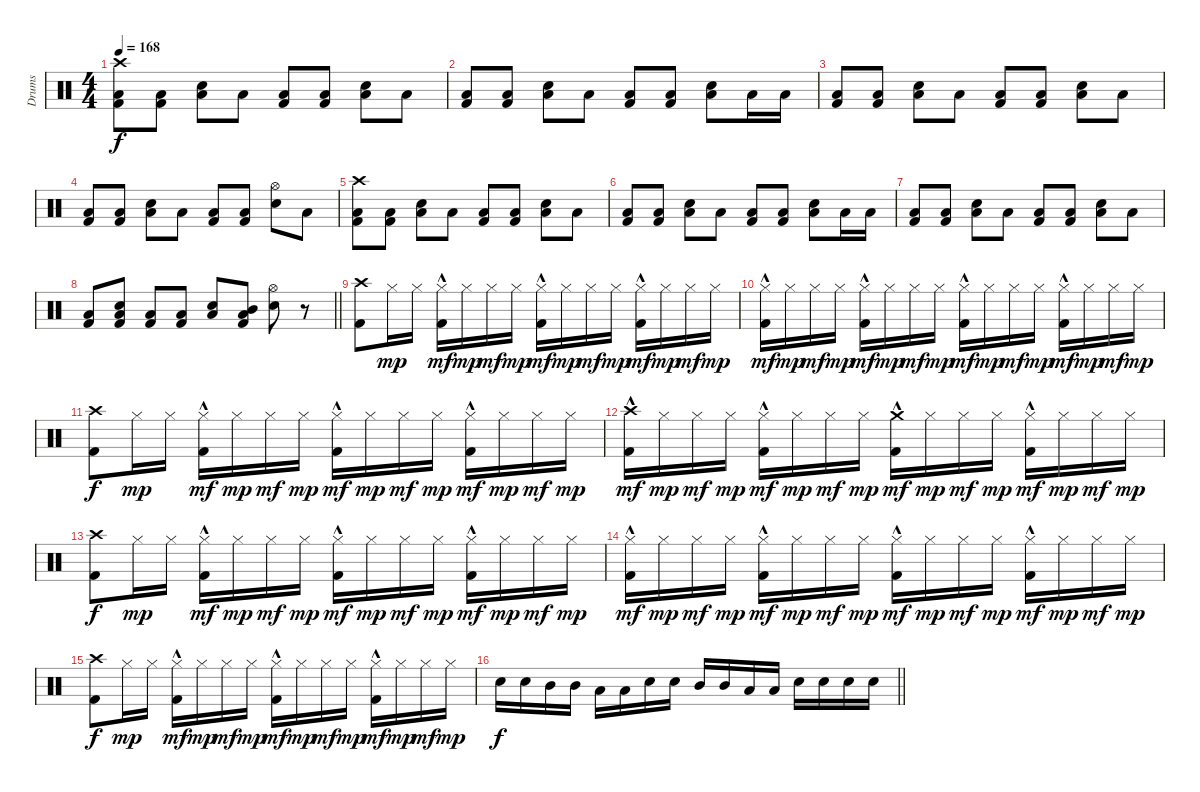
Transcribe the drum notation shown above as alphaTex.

\track ("Drums" "Drums") {instrument percussion}
\staff {score}
\articulation defaults
\ts (4 4)
\tempo 168
\clef neutral
\ks c
("Crash high (hit)" "Low Floor Tom (hit)" "Kick (hit) 2").8{dy f} ("Low Floor Tom (hit)" "Kick (hit) 2").8 ("Electric Snare (hit)" "Low Floor Tom (hit)").8 "Low Floor Tom (hit)".8 ("Low Floor Tom (hit)" "Kick (hit) 2").8 ("Low Floor Tom (hit)" "Kick (hit) 2").8 ("Electric Snare (hit)" "Low Floor Tom (hit)").8 "Low Floor Tom (hit)".8 |
("Low Floor Tom (hit)" "Kick (hit) 2").8 ("Low Floor Tom (hit)" "Kick (hit) 2").8 ("Electric Snare (hit)" "Low Floor Tom (hit)").8 "Low Floor Tom (hit)".8 ("Low Floor Tom (hit)" "Kick (hit) 2").8 ("Low Floor Tom (hit)" "Kick (hit) 2").8 ("Electric Snare (hit)" "Low Floor Tom (hit)").8 "Low Floor Tom (hit)".16 "Low Floor Tom (hit)".16 |
("Low Floor Tom (hit)" "Kick (hit) 2").8 ("Low Floor Tom (hit)" "Kick (hit) 2").8 ("Electric Snare (hit)" "Low Floor Tom (hit)").8 "Low Floor Tom (hit)".8 ("Low Floor Tom (hit)" "Kick (hit) 2").8 ("Low Floor Tom (hit)" "Kick (hit) 2").8 ("Electric Snare (hit)" "Low Floor Tom (hit)").8 "Low Floor Tom (hit)".8 |
("Low Floor Tom (hit)" "Kick (hit) 2").8 ("Low Floor Tom (hit)" "Kick (hit) 2").8 ("Electric Snare (hit)" "Low Floor Tom (hit)").8 "Low Floor Tom (hit)".8 ("Low Floor Tom (hit)" "Kick (hit) 2").8 ("Low Floor Tom (hit)" "Kick (hit) 2").8 ("Hi-Hat (open)" "Electric Snare (hit)").8 "Low Floor Tom (hit)".8 |
("Crash high (hit)" "Low Floor Tom (hit)" "Kick (hit) 2").8 ("Low Floor Tom (hit)" "Kick (hit) 2").8 ("Electric Snare (hit)" "Low Floor Tom (hit)").8 "Low Floor Tom (hit)".8 ("Low Floor Tom (hit)" "Kick (hit) 2").8 ("Low Floor Tom (hit)" "Kick (hit) 2").8 ("Electric Snare (hit)" "Low Floor Tom (hit)").8 "Low Floor Tom (hit)".8 |
("Low Floor Tom (hit)" "Kick (hit) 2").8 ("Low Floor Tom (hit)" "Kick (hit) 2").8 ("Electric Snare (hit)" "Low Floor Tom (hit)").8 "Low Floor Tom (hit)".8 ("Low Floor Tom (hit)" "Kick (hit) 2").8 ("Low Floor Tom (hit)" "Kick (hit) 2").8 ("Electric Snare (hit)" "Low Floor Tom (hit)").8 "Low Floor Tom (hit)".16 "Low Floor Tom (hit)".16 |
("Low Floor Tom (hit)" "Kick (hit) 2").8 ("Low Floor Tom (hit)" "Kick (hit) 2").8 ("Electric Snare (hit)" "Low Floor Tom (hit)").8 "Low Floor Tom (hit)".8 ("Low Floor Tom (hit)" "Kick (hit) 2").8 ("Low Floor Tom (hit)" "Kick (hit) 2").8 ("Electric Snare (hit)" "Low Floor Tom (hit)").8 "Low Floor Tom (hit)".8 |
\barLineRight lightlight
("Low Floor Tom (hit)" "Kick (hit) 2").8 ("Electric Snare (hit)" "Low Floor Tom (hit)" "Kick (hit) 2").8 ("Low Floor Tom (hit)" "Kick (hit) 2").8 ("Low Floor Tom (hit)" "Kick (hit) 2").8 ("Electric Snare (hit)" "Low Floor Tom (hit)").8 ("Mid Tom (hit)" "Low Tom (hit)" "Kick (hit) 2").8 ("Hi-Hat (open)" "Electric Snare (hit)").8 r.8 |
\section ("" "")
("Crash high (hit)" "Kick (hit) 2").8 "Hi-Hat (closed)".16{dy mp} "Hi-Hat (closed)".16 ("Hi-Hat (closed)"{hac} "Kick (hit) 2").16{dy mf} "Hi-Hat (closed)".16{dy mp} "Hi-Hat (closed)".16{dy mf} "Hi-Hat (closed)".16{dy mp} ("Hi-Hat (closed)"{hac} "Kick (hit) 2").16{dy mf} "Hi-Hat (closed)".16{dy mp} "Hi-Hat (closed)".16{dy mf} "Hi-Hat (closed)".16{dy mp} ("Hi-Hat (closed)"{hac} "Kick (hit) 2").16{dy mf} "Hi-Hat (closed)".16{dy mp} "Hi-Hat (closed)".16{dy mf} "Hi-Hat (closed)".16{dy mp} |
("Hi-Hat (closed)"{hac} "Kick (hit) 2").16{dy mf} "Hi-Hat (closed)".16{dy mp} "Hi-Hat (closed)".16{dy mf} "Hi-Hat (closed)".16{dy mp} ("Hi-Hat (closed)"{hac} "Kick (hit) 2").16{dy mf} "Hi-Hat (closed)".16{dy mp} "Hi-Hat (closed)".16{dy mf} "Hi-Hat (closed)".16{dy mp} ("Hi-Hat (closed)"{hac} "Kick (hit) 2").16{dy mf} "Hi-Hat (closed)".16{dy mp} "Hi-Hat (closed)".16{dy mf} "Hi-Hat (closed)".16{dy mp} ("Hi-Hat (closed)"{hac} "Kick (hit) 2").16{dy mf} "Hi-Hat (closed)".16{dy mp} "Hi-Hat (closed)".16{dy mf} "Hi-Hat (closed)".16{dy mp} |
("Crash high (hit)" "Kick (hit) 2").8{dy f} "Hi-Hat (closed)".16{dy mp} "Hi-Hat (closed)".16 ("Hi-Hat (closed)"{hac} "Kick (hit) 2").16{dy mf} "Hi-Hat (closed)".16{dy mp} "Hi-Hat (closed)".16{dy mf} "Hi-Hat (closed)".16{dy mp} ("Hi-Hat (closed)"{hac} "Kick (hit) 2").16{dy mf} "Hi-Hat (closed)".16{dy mp} "Hi-Hat (closed)".16{dy mf} "Hi-Hat (closed)".16{dy mp} ("Hi-Hat (closed)"{hac} "Kick (hit) 2").16{dy mf} "Hi-Hat (closed)".16{dy mp} "Hi-Hat (closed)".16{dy mf} "Hi-Hat (closed)".16{dy mp} |
("Crash high (hit)"{hac} "Kick (hit) 2").16{dy mf} "Hi-Hat (closed)".16{dy mp} "Hi-Hat (closed)".16{dy mf} "Hi-Hat (closed)".16{dy mp} ("Hi-Hat (closed)"{hac} "Kick (hit) 2").16{dy mf} "Hi-Hat (closed)".16{dy mp} "Hi-Hat (closed)".16{dy mf} "Hi-Hat (closed)".16{dy mp} ("Crash medium (hit)"{hac} "Kick (hit) 2").16{dy mf} "Hi-Hat (closed)".16{dy mp} "Hi-Hat (closed)".16{dy mf} "Hi-Hat (closed)".16{dy mp} ("Hi-Hat (closed)"{hac} "Kick (hit) 2").16{dy mf} "Hi-Hat (closed)".16{dy mp} "Hi-Hat (closed)".16{dy mf} "Hi-Hat (closed)".16{dy mp} |
("Crash high (hit)" "Kick (hit) 2").8{dy f} "Hi-Hat (closed)".16{dy mp} "Hi-Hat (closed)".16 ("Hi-Hat (closed)"{hac} "Kick (hit) 2").16{dy mf} "Hi-Hat (closed)".16{dy mp} "Hi-Hat (closed)".16{dy mf} "Hi-Hat (closed)".16{dy mp} ("Hi-Hat (closed)"{hac} "Kick (hit) 2").16{dy mf} "Hi-Hat (closed)".16{dy mp} "Hi-Hat (closed)".16{dy mf} "Hi-Hat (closed)".16{dy mp} ("Hi-Hat (closed)"{hac} "Kick (hit) 2").16{dy mf} "Hi-Hat (closed)".16{dy mp} "Hi-Hat (closed)".16{dy mf} "Hi-Hat (closed)".16{dy mp} |
("Hi-Hat (closed)"{hac} "Kick (hit) 2").16{dy mf} "Hi-Hat (closed)".16{dy mp} "Hi-Hat (closed)".16{dy mf} "Hi-Hat (closed)".16{dy mp} ("Hi-Hat (closed)"{hac} "Kick (hit) 2").16{dy mf} "Hi-Hat (closed)".16{dy mp} "Hi-Hat (closed)".16{dy mf} "Hi-Hat (closed)".16{dy mp} ("Hi-Hat (closed)"{hac} "Kick (hit) 2").16{dy mf} "Hi-Hat (closed)".16{dy mp} "Hi-Hat (closed)".16{dy mf} "Hi-Hat (closed)".16{dy mp} ("Hi-Hat (closed)"{hac} "Kick (hit) 2").16{dy mf} "Hi-Hat (closed)".16{dy mp} "Hi-Hat (closed)".16{dy mf} "Hi-Hat (closed)".16{dy mp} |
("Crash high (hit)" "Kick (hit) 2").8{dy f} "Hi-Hat (closed)".16{dy mp} "Hi-Hat (closed)".16 ("Hi-Hat (closed)"{hac} "Kick (hit) 2").16{dy mf} "Hi-Hat (closed)".16{dy mp} "Hi-Hat (closed)".16{dy mf} "Hi-Hat (closed)".16{dy mp} ("Hi-Hat (closed)"{hac} "Kick (hit) 2").16{dy mf} "Hi-Hat (closed)".16{dy mp} "Hi-Hat (closed)".16{dy mf} "Hi-Hat (closed)".16{dy mp} ("Hi-Hat (closed)"{hac} "Kick (hit) 2").16{dy mf} "Hi-Hat (closed)".16{dy mp} "Hi-Hat (closed)".16{dy mf} "Hi-Hat (closed)".16{dy mp} |
\barLineRight lightlight "Electric Snare (hit)".16{dy f} "Electric Snare (hit)".16 "Mid Tom (hit)".16 "Mid Tom (hit)".16 "Low Tom (hit)".16 "Low Tom (hit)".16 "Electric Snare (hit)".16 "Electric Snare (hit)".16 "Mid Tom (hit)".16 "Mid Tom (hit)".16 "Low Tom (hit)".16 "Low Tom (hit)".16 "Electric Snare (hit)".16 "Electric Snare (hit)".16 "Electric Snare (hit)".16 "Electric Snare (hit)".16
